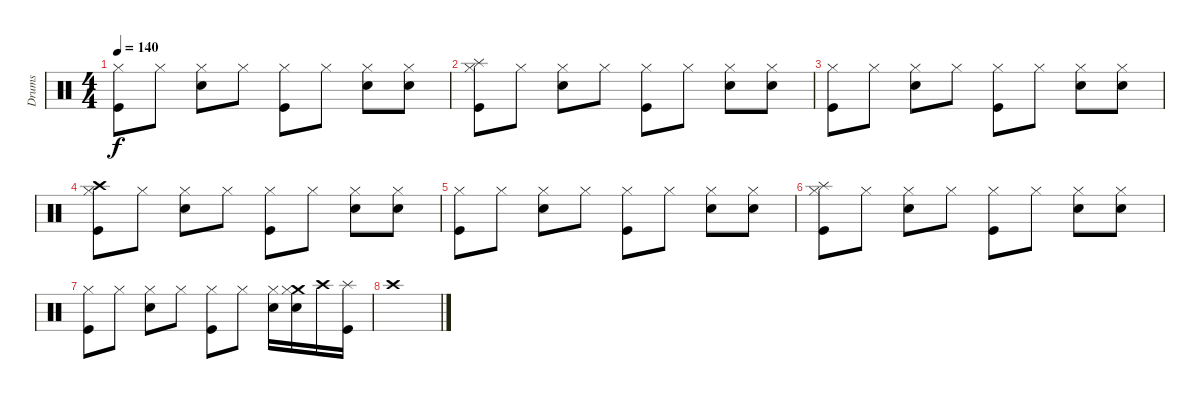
\track ("Drums" "Drums") {instrument percussion}
\staff {score}
\articulation defaults
\ts (4 4)
\tempo 140
\clef neutral
\ks c
("Hi-Hat (closed)" "Kick (hit)").8{dy f} "Hi-Hat (closed)".8 ("Hi-Hat (closed)" "Electric Snare (hit)").8 "Hi-Hat (closed)".8 ("Hi-Hat (closed)" "Kick (hit)").8 "Hi-Hat (closed)".8 ("Hi-Hat (closed)" "Electric Snare (hit)").8 ("Hi-Hat (closed)" "Electric Snare (hit)").8 |
("Splash (hit)" "Hi-Hat (closed)" "Kick (hit)").8 "Hi-Hat (closed)".8 ("Hi-Hat (closed)" "Electric Snare (hit)").8 "Hi-Hat (closed)".8 ("Hi-Hat (closed)" "Kick (hit)").8 "Hi-Hat (closed)".8 ("Hi-Hat (closed)" "Electric Snare (hit)").8 ("Hi-Hat (closed)" "Electric Snare (hit)").8 |
("Hi-Hat (closed)" "Kick (hit)").8 "Hi-Hat (closed)".8 ("Hi-Hat (closed)" "Electric Snare (hit)").8 "Hi-Hat (closed)".8 ("Hi-Hat (closed)" "Kick (hit)").8 "Hi-Hat (closed)".8 ("Hi-Hat (closed)" "Electric Snare (hit)").8 ("Hi-Hat (closed)" "Electric Snare (hit)").8 |
("Crash high (hit)" "Hi-Hat (closed)" "Kick (hit)").8 "Hi-Hat (closed)".8 ("Hi-Hat (closed)" "Electric Snare (hit)").8 "Hi-Hat (closed)".8 ("Hi-Hat (closed)" "Kick (hit)").8 "Hi-Hat (closed)".8 ("Hi-Hat (closed)" "Electric Snare (hit)").8 ("Hi-Hat (closed)" "Electric Snare (hit)").8 |
("Hi-Hat (closed)" "Kick (hit)").8 "Hi-Hat (closed)".8 ("Hi-Hat (closed)" "Electric Snare (hit)").8 "Hi-Hat (closed)".8 ("Hi-Hat (closed)" "Kick (hit)").8 "Hi-Hat (closed)".8 ("Hi-Hat (closed)" "Electric Snare (hit)").8 ("Hi-Hat (closed)" "Electric Snare (hit)").8 |
("Splash (hit)" "Hi-Hat (closed)" "Kick (hit)").8 "Hi-Hat (closed)".8 ("Hi-Hat (closed)" "Electric Snare (hit)").8 "Hi-Hat (closed)".8 ("Hi-Hat (closed)" "Kick (hit)").8 "Hi-Hat (closed)".8 ("Hi-Hat (closed)" "Electric Snare (hit)").8 ("Hi-Hat (closed)" "Electric Snare (hit)").8 |
("Hi-Hat (closed)" "Kick (hit)").8 "Hi-Hat (closed)".8 ("Hi-Hat (closed)" "Electric Snare (hit)").8 "Hi-Hat (closed)".8 ("Hi-Hat (closed)" "Kick (hit)").8 "Hi-Hat (closed)".8 ("Hi-Hat (closed)" "Electric Snare (hit)").16 ("Crash medium (hit)" "Hi-Hat (closed)" "Electric Snare (hit)").16 "Crash high (hit)".16 ("Splash (hit)" "Kick (hit)").16 |
"Crash high (hit)".1
